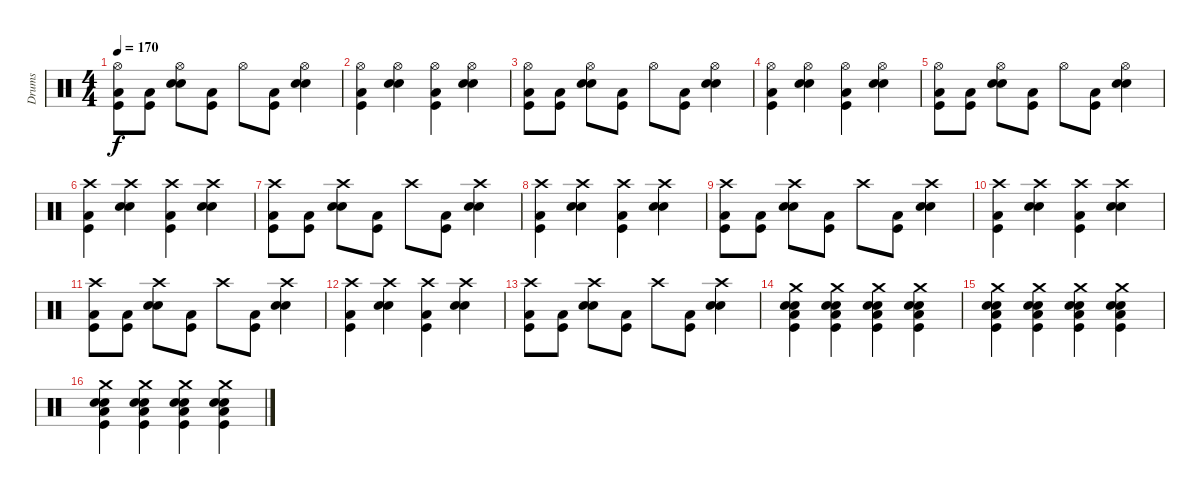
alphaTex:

\track ("Drums" "Drums") {instrument percussion}
\staff {score}
\articulation defaults
\ts (4 4)
\tempo 170
\clef neutral
\ks c
("Hi-Hat (open)" "Kick (hit)" "Low Tom (hit)").8{dy f} ("Kick (hit)" "Low Tom (hit)").8 ("Hi-Hat (open)" "Snare (hit) 2" "Electric Snare (hit)").8 ("Kick (hit)" "Low Tom (hit)").8 "Hi-Hat (open)".8 ("Kick (hit)" "Low Tom (hit)").8 ("Hi-Hat (open)" "Snare (hit) 2" "Electric Snare (hit)").4 |
("Hi-Hat (open)" "Kick (hit)" "Low Tom (hit)").4 ("Hi-Hat (open)" "Snare (hit) 2" "Electric Snare (hit)").4 ("Hi-Hat (open)" "Kick (hit)" "Low Tom (hit)").4 ("Hi-Hat (open)" "Snare (hit) 2" "Electric Snare (hit)").4 |
("Hi-Hat (open)" "Kick (hit)" "Low Tom (hit)").8 ("Kick (hit)" "Low Tom (hit)").8 ("Hi-Hat (open)" "Snare (hit) 2" "Electric Snare (hit)").8 ("Kick (hit)" "Low Tom (hit)").8 "Hi-Hat (open)".8 ("Kick (hit)" "Low Tom (hit)").8 ("Hi-Hat (open)" "Snare (hit) 2" "Electric Snare (hit)").4 |
("Hi-Hat (open)" "Kick (hit)" "Low Tom (hit)").4 ("Hi-Hat (open)" "Snare (hit) 2" "Electric Snare (hit)").4 ("Hi-Hat (open)" "Kick (hit)" "Low Tom (hit)").4 ("Hi-Hat (open)" "Snare (hit) 2" "Electric Snare (hit)").4 |
("Hi-Hat (open)" "Kick (hit)" "Low Tom (hit)").8 ("Kick (hit)" "Low Tom (hit)").8 ("Hi-Hat (open)" "Snare (hit) 2" "Electric Snare (hit)").8 ("Kick (hit)" "Low Tom (hit)").8 "Hi-Hat (open)".8 ("Kick (hit)" "Low Tom (hit)").8 ("Hi-Hat (open)" "Snare (hit) 2" "Electric Snare (hit)").4 |
("Crash high (hit)" "Kick (hit)" "Low Tom (hit)").4 ("Crash high (hit)" "Snare (hit) 2" "Electric Snare (hit)").4 ("Crash high (hit)" "Kick (hit)" "Low Tom (hit)").4 ("Crash high (hit)" "Snare (hit) 2" "Electric Snare (hit)").4 |
("Crash high (hit)" "Kick (hit)" "Low Tom (hit)").8 ("Kick (hit)" "Low Tom (hit)").8 ("Crash high (hit)" "Snare (hit) 2" "Electric Snare (hit)").8 ("Kick (hit)" "Low Tom (hit)").8 "Crash high (hit)".8 ("Kick (hit)" "Low Tom (hit)").8 ("Crash high (hit)" "Snare (hit) 2" "Electric Snare (hit)").4 |
("Crash high (hit)" "Kick (hit)" "Low Tom (hit)").4 ("Crash high (hit)" "Snare (hit) 2" "Electric Snare (hit)").4 ("Crash high (hit)" "Kick (hit)" "Low Tom (hit)").4 ("Crash high (hit)" "Snare (hit) 2" "Electric Snare (hit)").4 |
("Crash high (hit)" "Kick (hit)" "Low Tom (hit)").8 ("Kick (hit)" "Low Tom (hit)").8 ("Crash high (hit)" "Snare (hit) 2" "Electric Snare (hit)").8 ("Kick (hit)" "Low Tom (hit)").8 "Crash high (hit)".8 ("Kick (hit)" "Low Tom (hit)").8 ("Crash high (hit)" "Snare (hit) 2" "Electric Snare (hit)").4 |
("Crash high (hit)" "Kick (hit)" "Low Tom (hit)").4 ("Crash high (hit)" "Snare (hit) 2" "Electric Snare (hit)").4 ("Crash high (hit)" "Kick (hit)" "Low Tom (hit)").4 ("Crash high (hit)" "Snare (hit) 2" "Electric Snare (hit)").4 |
("Crash high (hit)" "Kick (hit)" "Low Tom (hit)").8 ("Kick (hit)" "Low Tom (hit)").8 ("Crash high (hit)" "Snare (hit) 2" "Electric Snare (hit)").8 ("Kick (hit)" "Low Tom (hit)").8 "Crash high (hit)".8 ("Kick (hit)" "Low Tom (hit)").8 ("Crash high (hit)" "Snare (hit) 2" "Electric Snare (hit)").4 |
("Crash high (hit)" "Kick (hit)" "Low Tom (hit)").4 ("Crash high (hit)" "Snare (hit) 2" "Electric Snare (hit)").4 ("Crash high (hit)" "Kick (hit)" "Low Tom (hit)").4 ("Crash high (hit)" "Snare (hit) 2" "Electric Snare (hit)").4 |
("Crash high (hit)" "Kick (hit)" "Low Tom (hit)").8 ("Kick (hit)" "Low Tom (hit)").8 ("Crash high (hit)" "Snare (hit) 2" "Electric Snare (hit)").8 ("Kick (hit)" "Low Tom (hit)").8 "Crash high (hit)".8 ("Kick (hit)" "Low Tom (hit)").8 ("Crash high (hit)" "Snare (hit) 2" "Electric Snare (hit)").4 |
("Crash medium (hit)" "Snare (hit) 2" "Electric Snare (hit)" "Kick (hit)" "Low Tom (hit)").4 ("Crash medium (hit)" "Snare (hit) 2" "Electric Snare (hit)" "Kick (hit)" "Low Tom (hit)").4 ("Crash medium (hit)" "Snare (hit) 2" "Electric Snare (hit)" "Kick (hit)" "Low Tom (hit)").4 ("Crash medium (hit)" "Snare (hit) 2" "Electric Snare (hit)" "Kick (hit)" "Low Tom (hit)").4 |
("Crash medium (hit)" "Snare (hit) 2" "Electric Snare (hit)" "Kick (hit)" "Low Tom (hit)").4 ("Crash medium (hit)" "Snare (hit) 2" "Electric Snare (hit)" "Kick (hit)" "Low Tom (hit)").4 ("Crash medium (hit)" "Snare (hit) 2" "Electric Snare (hit)" "Kick (hit)" "Low Tom (hit)").4 ("Crash medium (hit)" "Snare (hit) 2" "Electric Snare (hit)" "Kick (hit)" "Low Tom (hit)").4 |
("Crash medium (hit)" "Snare (hit) 2" "Electric Snare (hit)" "Kick (hit)" "Low Tom (hit)").4 ("Crash medium (hit)" "Snare (hit) 2" "Electric Snare (hit)" "Kick (hit)" "Low Tom (hit)").4 ("Crash medium (hit)" "Snare (hit) 2" "Electric Snare (hit)" "Kick (hit)" "Low Tom (hit)").4 ("Crash medium (hit)" "Snare (hit) 2" "Electric Snare (hit)" "Kick (hit)" "Low Tom (hit)").4
